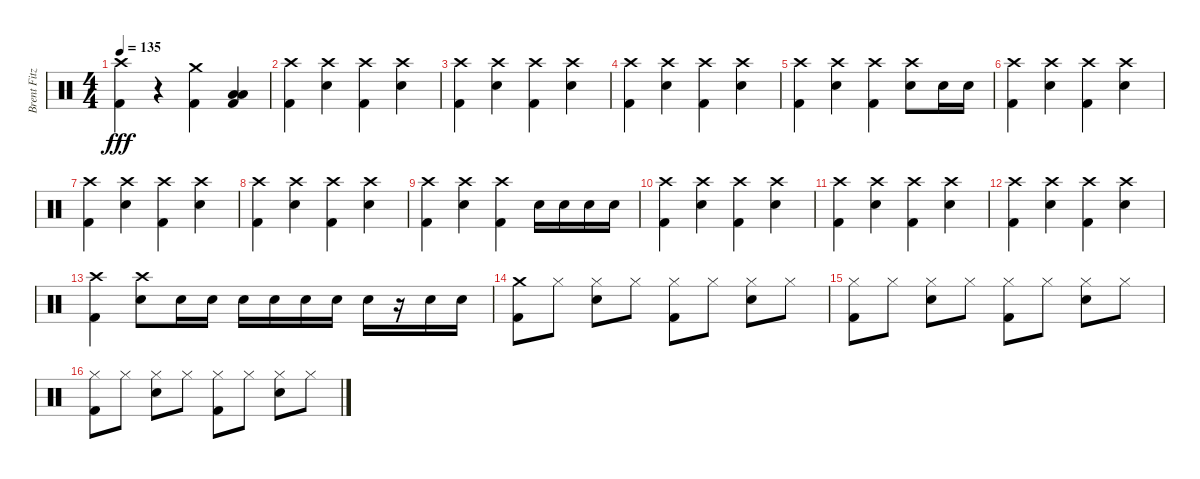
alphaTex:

\track ("Brent Fitz" "Brent Fitz") {instrument percussion}
\staff {score}
\articulation defaults
\ts (4 4)
\tempo 135
\clef neutral
\ks c
("Crash high (hit)" "Kick (hit) 2").4{dy fff} r.4 ("Crash medium (hit)" "Kick (hit) 2").4 ("Low Tom (hit)" "Low Floor Tom (hit)" "Kick (hit) 2").4 |
("Crash high (hit)" "Kick (hit) 2").4 ("Crash high (hit)" "Snare (hit) 2").4 ("Crash high (hit)" "Kick (hit) 2").4 ("Crash high (hit)" "Snare (hit) 2").4 |
("Crash high (hit)" "Kick (hit) 2").4 ("Crash high (hit)" "Snare (hit) 2").4 ("Crash high (hit)" "Kick (hit) 2").4 ("Crash high (hit)" "Snare (hit) 2").4 |
("Crash high (hit)" "Kick (hit) 2").4 ("Crash high (hit)" "Snare (hit) 2").4 ("Crash high (hit)" "Kick (hit) 2").4 ("Crash high (hit)" "Snare (hit) 2").4 |
("Crash high (hit)" "Kick (hit) 2").4 ("Crash high (hit)" "Snare (hit) 2").4 ("Crash high (hit)" "Kick (hit) 2").4 ("Crash high (hit)" "Snare (hit) 2").8 "Snare (hit) 2".16 "Snare (hit) 2".16 |
("Crash high (hit)" "Kick (hit) 2").4 ("Crash high (hit)" "Snare (hit) 2").4 ("Crash high (hit)" "Kick (hit) 2").4 ("Crash high (hit)" "Snare (hit) 2").4 |
("Crash high (hit)" "Kick (hit) 2").4 ("Crash high (hit)" "Snare (hit) 2").4 ("Crash high (hit)" "Kick (hit) 2").4 ("Crash high (hit)" "Snare (hit) 2").4 |
("Crash high (hit)" "Kick (hit) 2").4 ("Crash high (hit)" "Snare (hit) 2").4 ("Crash high (hit)" "Kick (hit) 2").4 ("Crash high (hit)" "Snare (hit) 2").4 |
("Crash high (hit)" "Kick (hit) 2").4 ("Crash high (hit)" "Snare (hit) 2").4 ("Crash high (hit)" "Kick (hit) 2").4 "Snare (hit) 2".16 "Snare (hit) 2".16 "Snare (hit) 2".16 "Snare (hit) 2".16 |
("Crash high (hit)" "Kick (hit) 2").4 ("Crash high (hit)" "Snare (hit) 2").4 ("Crash high (hit)" "Kick (hit) 2").4 ("Crash high (hit)" "Snare (hit) 2").4 |
("Crash high (hit)" "Kick (hit) 2").4 ("Crash high (hit)" "Snare (hit) 2").4 ("Crash high (hit)" "Kick (hit) 2").4 ("Crash high (hit)" "Snare (hit) 2").4 |
("Crash high (hit)" "Kick (hit) 2").4 ("Crash high (hit)" "Snare (hit) 2").4 ("Crash high (hit)" "Kick (hit) 2").4 ("Crash high (hit)" "Snare (hit) 2").4 |
("Crash high (hit)" "Kick (hit) 2").4 ("Crash high (hit)" "Snare (hit) 2").8 "Snare (hit) 2".16 "Snare (hit) 2".16 "Snare (hit) 2".16 "Snare (hit) 2".16 "Snare (hit) 2".16 "Snare (hit) 2".16 "Snare (hit) 2".16 r.16 "Snare (hit) 2".16 "Snare (hit) 2".16 |
("Crash medium (hit)" "Kick (hit) 2").8 "Hi-Hat (closed)".8 ("Hi-Hat (closed)" "Snare (hit) 2").8 "Hi-Hat (closed)".8 ("Hi-Hat (closed)" "Kick (hit) 2").8 "Hi-Hat (closed)".8 ("Hi-Hat (closed)" "Snare (hit) 2").8 "Hi-Hat (closed)".8 |
("Hi-Hat (closed)" "Kick (hit) 2").8 "Hi-Hat (closed)".8 ("Hi-Hat (closed)" "Snare (hit) 2").8 "Hi-Hat (closed)".8 ("Hi-Hat (closed)" "Kick (hit) 2").8 "Hi-Hat (closed)".8 ("Hi-Hat (closed)" "Snare (hit) 2").8 "Hi-Hat (closed)".8 |
("Hi-Hat (closed)" "Kick (hit) 2").8 "Hi-Hat (closed)".8 ("Hi-Hat (closed)" "Snare (hit) 2").8 "Hi-Hat (closed)".8 ("Hi-Hat (closed)" "Kick (hit) 2").8 "Hi-Hat (closed)".8 ("Hi-Hat (closed)" "Snare (hit) 2").8 "Hi-Hat (closed)".8
